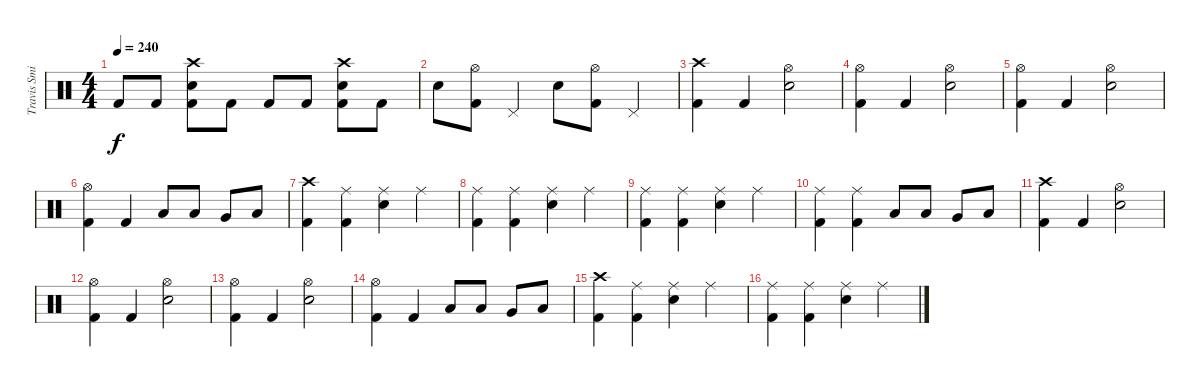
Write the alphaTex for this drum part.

\track ("Travis Smith" "Travis Smi") {instrument percussion}
\staff {score}
\articulation defaults
\ts (4 4)
\tempo 240
\clef neutral
\ks c "Kick (hit) 2".8{dy f} "Kick (hit) 2".8
("Kick (hit) 2" "Snare (hit) 2" "Crash high (hit)").8 "Kick (hit) 2".8 "Kick (hit) 2".8 "Kick (hit) 2".8 ("Kick (hit) 2" "Snare (hit) 2" "Crash high (hit)").8 "Kick (hit) 2".8 |
"Snare (hit) 2".8 ("Kick (hit) 2" "Hi-Hat (open)").8 "Pedal Hi-Hat (hit)".4 "Snare (hit) 2".8 ("Kick (hit) 2" "Hi-Hat (open)").8 "Pedal Hi-Hat (hit)".4 |
("Kick (hit) 2" "Crash high (hit)").4 "Kick (hit) 2".4 ("Snare (hit) 2" "Hi-Hat (open)").2 |
("Kick (hit) 2" "Hi-Hat (open)").4 "Kick (hit) 2".4 ("Snare (hit) 2" "Hi-Hat (open)").2 |
("Kick (hit) 2" "Hi-Hat (open)").4 "Kick (hit) 2".4 ("Snare (hit) 2" "Hi-Hat (open)").2 |
("Kick (hit) 2" "Hi-Hat (open)").4 "Kick (hit) 2".4 "Low Tom (hit)".8 "Low Tom (hit)".8 "Very Low Tom (hit)".8 "Low Floor Tom (hit)".8 |
("Kick (hit) 2" "Crash high (hit)").4 ("Kick (hit) 2" "Ride (middle)").4 ("Snare (hit) 2" "Ride (middle)").4 "Ride (middle)".4 |
("Kick (hit) 2" "Ride (middle)").4 ("Kick (hit) 2" "Ride (middle)").4 ("Snare (hit) 2" "Ride (middle)").4 "Ride (middle)".4 |
("Kick (hit) 2" "Ride (middle)").4 ("Kick (hit) 2" "Ride (middle)").4 ("Snare (hit) 2" "Ride (middle)").4 "Ride (middle)".4 |
("Kick (hit) 2" "Ride (middle)").4 ("Kick (hit) 2" "Ride (middle)").4 "Low Tom (hit)".8 "Low Tom (hit)".8 "Very Low Tom (hit)".8 "Low Floor Tom (hit)".8 |
("Kick (hit) 2" "Crash high (hit)").4 "Kick (hit) 2".4 ("Snare (hit) 2" "Hi-Hat (open)").2 |
("Kick (hit) 2" "Hi-Hat (open)").4 "Kick (hit) 2".4 ("Snare (hit) 2" "Hi-Hat (open)").2 |
("Kick (hit) 2" "Hi-Hat (open)").4 "Kick (hit) 2".4 ("Snare (hit) 2" "Hi-Hat (open)").2 |
("Kick (hit) 2" "Hi-Hat (open)").4 "Kick (hit) 2".4 "Low Tom (hit)".8 "Low Tom (hit)".8 "Very Low Tom (hit)".8 "Low Floor Tom (hit)".8 |
("Kick (hit) 2" "Crash high (hit)").4 ("Kick (hit) 2" "Ride (middle)").4 ("Snare (hit) 2" "Ride (middle)").4 "Ride (middle)".4 |
("Kick (hit) 2" "Ride (middle)").4 ("Kick (hit) 2" "Ride (middle)").4 ("Snare (hit) 2" "Ride (middle)").4 "Ride (middle)".4
